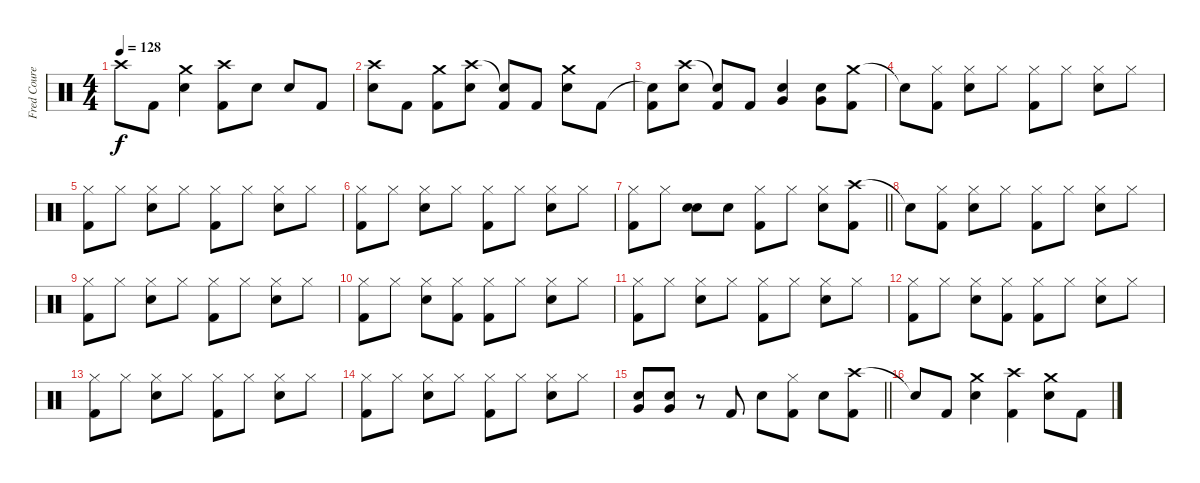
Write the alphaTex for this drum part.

\track ("Fred Courey" "Fred Coure") {instrument percussion}
\staff {score}
\articulation defaults
\ts (4 4)
\tempo 128
\clef neutral
\ks c "Crash high (hit)".8{dy f} "Kick (hit) 2".8
("Crash medium (hit)" "Snare (hit) 2").4 ("Crash high (hit)" "Kick (hit) 2").8 "Snare (hit) 2".8 "Snare (hit) 2".8 "Kick (hit) 2".8 |
("Crash high (hit)" "Snare (hit) 2").8 "Kick (hit) 2".8 ("Crash medium (hit)" "Kick (hit) 2").8 ("Crash high (hit)" "Snare (hit) 2").8 ("Snare (hit)"{t} "Kick (hit) 2").8 "Kick (hit) 2".8 ("Crash medium (hit)" "Snare (hit) 2").8 "Kick (hit) 2".8 |
("Snare (hit)"{t} "Kick (hit) 2").8 ("Crash high (hit)" "Snare (hit) 2").8 ("Snare (hit)"{t} "Kick (hit) 2").8 "Kick (hit) 2".8 ("Very Low Tom (hit)" "Snare (hit) 2").4 ("Very Low Tom (hit)" "Snare (hit) 2").8 ("Crash medium (hit)" "Kick (hit) 2").8 |
"Snare (hit)"{t}.8 ("Hi-Hat (closed)" "Kick (hit) 2").8 ("Hi-Hat (closed)" "Snare (hit) 2").8 "Hi-Hat (closed)".8 ("Hi-Hat (closed)" "Kick (hit) 2").8 "Hi-Hat (closed)".8 ("Hi-Hat (closed)" "Snare (hit) 2").8 "Hi-Hat (closed)".8 |
("Hi-Hat (closed)" "Kick (hit) 2").8 "Hi-Hat (closed)".8 ("Hi-Hat (closed)" "Snare (hit) 2").8 "Hi-Hat (closed)".8 ("Hi-Hat (closed)" "Kick (hit) 2").8 "Hi-Hat (closed)".8 ("Hi-Hat (closed)" "Snare (hit) 2").8 "Hi-Hat (closed)".8 |
("Hi-Hat (closed)" "Kick (hit) 2").8 "Hi-Hat (closed)".8 ("Hi-Hat (closed)" "Snare (hit) 2").8 "Hi-Hat (closed)".8 ("Hi-Hat (closed)" "Kick (hit) 2").8 "Hi-Hat (closed)".8 ("Hi-Hat (closed)" "Snare (hit) 2").8 "Hi-Hat (closed)".8 |
\barLineRight lightlight
("Hi-Hat (closed)" "Kick (hit) 2").8 "Hi-Hat (closed)".8 ("Snare (hit)" "Snare (hit) 2").8 "Snare (hit)".8 ("Hi-Hat (closed)" "Kick (hit) 2").8 "Hi-Hat (closed)".8 ("Hi-Hat (closed)" "Snare (hit) 2").8 ("Crash high (hit)" "Kick (hit) 2").8 |
"Snare (hit)"{t}.8 ("Hi-Hat (closed)" "Kick (hit) 2").8 ("Hi-Hat (closed)" "Snare (hit) 2").8 "Hi-Hat (closed)".8 ("Hi-Hat (closed)" "Kick (hit) 2").8 "Hi-Hat (closed)".8 ("Hi-Hat (closed)" "Snare (hit) 2").8 "Hi-Hat (closed)".8 |
("Hi-Hat (closed)" "Kick (hit) 2").8 "Hi-Hat (closed)".8 ("Hi-Hat (closed)" "Snare (hit) 2").8 "Hi-Hat (closed)".8 ("Hi-Hat (closed)" "Kick (hit) 2").8 "Hi-Hat (closed)".8 ("Hi-Hat (closed)" "Snare (hit) 2").8 "Hi-Hat (closed)".8 |
("Hi-Hat (closed)" "Kick (hit) 2").8 "Hi-Hat (closed)".8 ("Hi-Hat (closed)" "Snare (hit) 2").8 ("Hi-Hat (closed)" "Kick (hit) 2").8 ("Hi-Hat (closed)" "Kick (hit) 2").8 "Hi-Hat (closed)".8 ("Hi-Hat (closed)" "Snare (hit) 2").8 "Hi-Hat (closed)".8 |
("Hi-Hat (closed)" "Kick (hit) 2").8 "Hi-Hat (closed)".8 ("Hi-Hat (closed)" "Snare (hit) 2").8 "Hi-Hat (closed)".8 ("Hi-Hat (closed)" "Kick (hit) 2").8 "Hi-Hat (closed)".8 ("Hi-Hat (closed)" "Snare (hit) 2").8 "Hi-Hat (closed)".8 |
("Hi-Hat (closed)" "Kick (hit) 2").8 "Hi-Hat (closed)".8 ("Hi-Hat (closed)" "Snare (hit) 2").8 ("Hi-Hat (closed)" "Kick (hit) 2").8 ("Hi-Hat (closed)" "Kick (hit) 2").8 "Hi-Hat (closed)".8 ("Hi-Hat (closed)" "Snare (hit) 2").8 "Hi-Hat (closed)".8 |
("Hi-Hat (closed)" "Kick (hit) 2").8 "Hi-Hat (closed)".8 ("Hi-Hat (closed)" "Snare (hit) 2").8 "Hi-Hat (closed)".8 ("Hi-Hat (closed)" "Kick (hit) 2").8 "Hi-Hat (closed)".8 ("Hi-Hat (closed)" "Snare (hit) 2").8 "Hi-Hat (closed)".8 |
("Hi-Hat (closed)" "Kick (hit) 2").8 "Hi-Hat (closed)".8 ("Hi-Hat (closed)" "Snare (hit) 2").8 "Hi-Hat (closed)".8 ("Hi-Hat (closed)" "Kick (hit) 2").8 "Hi-Hat (closed)".8 ("Hi-Hat (closed)" "Snare (hit) 2").8 "Hi-Hat (closed)".8 |
\barLineRight lightlight
("Very Low Tom (hit)" "Snare (hit) 2").8 ("Very Low Tom (hit)" "Snare (hit) 2").8 r.8 "Kick (hit) 2".8 "Snare (hit) 2".8 ("Hi-Hat (closed)" "Kick (hit) 2").8 "Snare (hit) 2".8 ("Crash high (hit)" "Kick (hit) 2").8 |
"Snare (hit)"{t}.8 "Kick (hit) 2".8 ("Crash medium (hit)" "Snare (hit) 2").4 ("Crash high (hit)" "Kick (hit) 2").4 ("Crash medium (hit)" "Snare (hit) 2").8 "Kick (hit) 2".8
